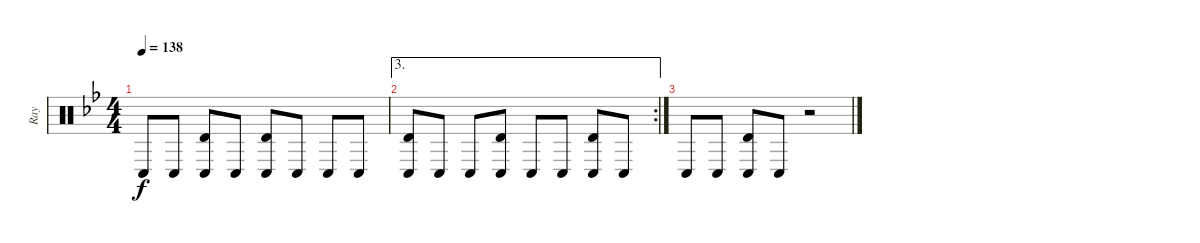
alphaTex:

\track ("Ray" "Ray") {instrument percussion}
\staff {score}
\articulation defaults
\ts (4 4)
\tempo 138
\clef neutral
\ks bb "Conga low (hit)".8{dy f} "Conga low (hit)".8
("Timbale high (hit)" "Conga low (hit)").8 "Conga low (hit)".8 ("Timbale high (hit)" "Conga low (hit)").8 "Conga low (hit)".8 "Conga low (hit)".8 "Conga low (hit)".8 |
\ae 3
\rc 2
("Timbale high (hit)" "Conga low (hit)").8 "Conga low (hit)".8 "Conga low (hit)".8 ("Timbale high (hit)" "Conga low (hit)").8 "Conga low (hit)".8 "Conga low (hit)".8 ("Timbale high (hit)" "Conga low (hit)").8 "Conga low (hit)".8 |
"Conga low (hit)".8 "Conga low (hit)".8 ("Timbale high (hit)" "Conga low (hit)").8 "Conga low (hit)".8 r.2
